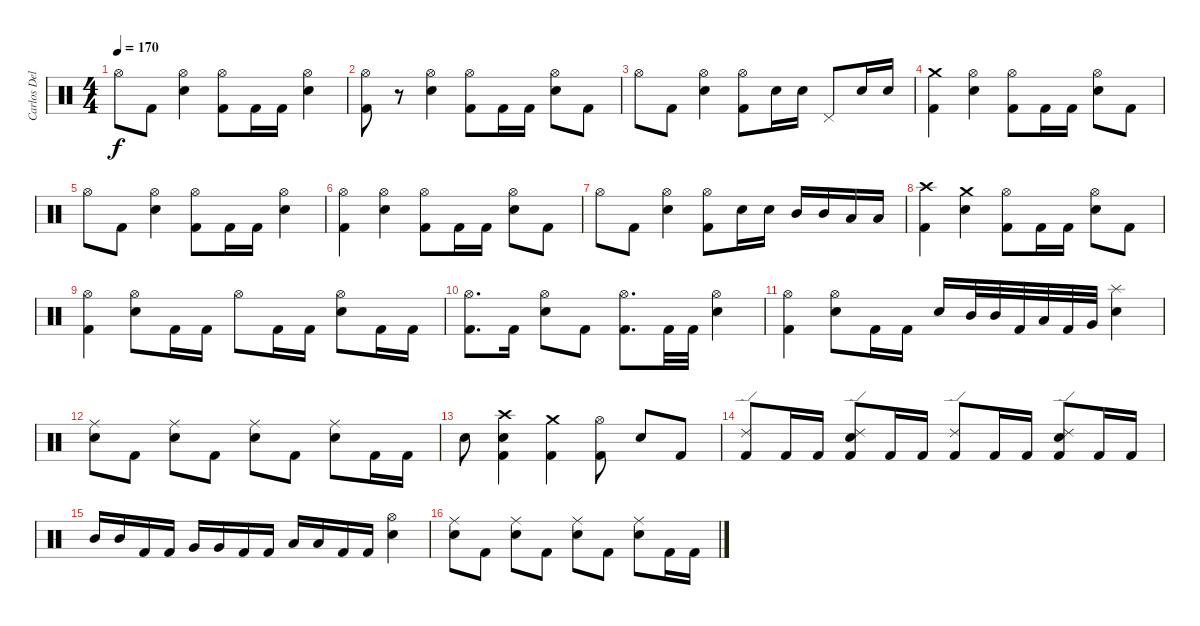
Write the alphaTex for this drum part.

\track ("Carlos Delgado" "Carlos Del") {instrument percussion}
\staff {score}
\articulation defaults
\ts (4 4)
\tempo 170
\clef neutral
\ks c "Hi-Hat (open)".8{dy f} "Kick (hit) 2".8
("Hi-Hat (open)" "Electric Snare (hit)").4 ("Hi-Hat (open)" "Kick (hit) 2").8 "Kick (hit) 2".16 "Kick (hit) 2".16 ("Hi-Hat (open)" "Electric Snare (hit)").4 |
("Hi-Hat (open)" "Kick (hit) 2").8 r.8 ("Hi-Hat (open)" "Electric Snare (hit)").4 ("Hi-Hat (open)" "Kick (hit) 2").8 "Kick (hit) 2".16 "Kick (hit) 2".16 ("Hi-Hat (open)" "Electric Snare (hit)").8 "Kick (hit) 2".8 |
"Hi-Hat (open)".8 "Kick (hit) 2".8 ("Hi-Hat (open)" "Electric Snare (hit)").4 ("Hi-Hat (open)" "Kick (hit) 2").8 "Electric Snare (hit)".16 "Electric Snare (hit)".16 "Pedal Hi-Hat (hit)".8 "Electric Snare (hit)".16 "Electric Snare (hit)".16 |
("Crash medium (hit)" "Kick (hit) 2").4 ("Hi-Hat (open)" "Electric Snare (hit)").4 ("Hi-Hat (open)" "Kick (hit) 2").8 "Kick (hit) 2".16 "Kick (hit) 2".16 ("Hi-Hat (open)" "Electric Snare (hit)").8 "Kick (hit) 2".8 |
"Hi-Hat (open)".8 "Kick (hit) 2".8 ("Hi-Hat (open)" "Electric Snare (hit)").4 ("Hi-Hat (open)" "Kick (hit) 2").8 "Kick (hit) 2".16 "Kick (hit) 2".16 ("Hi-Hat (open)" "Electric Snare (hit)").4 |
("Hi-Hat (open)" "Kick (hit) 2").4 ("Hi-Hat (open)" "Electric Snare (hit)").4 ("Hi-Hat (open)" "Kick (hit) 2").8 "Kick (hit) 2".16 "Kick (hit) 2".16 ("Hi-Hat (open)" "Electric Snare (hit)").8 "Kick (hit) 2".8 |
"Hi-Hat (open)".8 "Kick (hit) 2".8 ("Hi-Hat (open)" "Electric Snare (hit)").4 ("Hi-Hat (open)" "Kick (hit) 2").8 "Electric Snare (hit)".16 "Electric Snare (hit)".16 "Mid Tom (hit)".16 "Mid Tom (hit)".16 "Low Tom (hit)".16 "Low Tom (hit)".16 |
("Crash high (hit)" "Kick (hit) 2").4 ("Crash medium (hit)" "Electric Snare (hit)").4 ("Hi-Hat (open)" "Kick (hit) 2").8 "Kick (hit) 2".16 "Kick (hit) 2".16 ("Hi-Hat (open)" "Electric Snare (hit)").8 "Kick (hit) 2".8 |
("Hi-Hat (open)" "Kick (hit) 2").4 ("Hi-Hat (open)" "Electric Snare (hit)").8 "Kick (hit) 2".16 "Kick (hit) 2".16 "Hi-Hat (open)".8 "Kick (hit) 2".16 "Kick (hit) 2".16 ("Hi-Hat (open)" "Electric Snare (hit)").8 "Kick (hit) 2".16 "Kick (hit) 2".16 |
("Hi-Hat (open)" "Kick (hit) 2").8{d} "Kick (hit) 2".16 ("Hi-Hat (open)" "Electric Snare (hit)").8 "Kick (hit) 2".8 ("Hi-Hat (open)" "Kick (hit) 2").8{d} "Kick (hit) 2".32 "Kick (hit) 2".32 ("Hi-Hat (open)" "Electric Snare (hit)").4 |
("Hi-Hat (open)" "Kick (hit) 2").4 ("Hi-Hat (open)" "Electric Snare (hit)").8 "Kick (hit) 2".16 "Kick (hit) 2".16 "Electric Snare (hit)".16 "Mid Tom (hit)".32 "Mid Tom (hit)".32 "Kick (hit) 2".32 "Low Tom (hit)".32 "Kick (hit) 2".32 "Very Low Tom (hit)".32 ("Splash (hit)" "Electric Snare (hit)").4 |
("Ride (middle)" "Electric Snare (hit)").8 "Kick (hit) 2".8 ("Ride (middle)" "Electric Snare (hit)").8 "Kick (hit) 2".8 ("Ride (middle)" "Electric Snare (hit)").8 "Kick (hit) 2".8 ("Ride (middle)" "Electric Snare (hit)").8 "Kick (hit) 2".16 "Kick (hit) 2".16 |
"Electric Snare (hit)".8 ("Crash high (hit)" "Electric Snare (hit)" "Kick (hit) 2").4 ("Crash medium (hit)" "Kick (hit) 2").4 ("Hi-Hat (open)" "Kick (hit) 2").8 "Electric Snare (hit)".8 "Kick (hit) 2".8 |
("Ride (edge) 2" "Kick (hit) 2").8 "Kick (hit) 2".16 "Kick (hit) 2".16 ("Ride (edge) 2" "Electric Snare (hit)" "Kick (hit) 2").8 "Kick (hit) 2".16 "Kick (hit) 2".16 ("Ride (edge) 2" "Kick (hit) 2").8 "Kick (hit) 2".16 "Kick (hit) 2".16 ("Ride (edge) 2" "Electric Snare (hit)" "Kick (hit) 2").8 "Kick (hit) 2".16 "Kick (hit) 2".16 |
"Mid Tom (hit)".16 "Mid Tom (hit)".16 "Kick (hit) 2".16 "Kick (hit) 2".16 "Very Low Tom (hit)".16 "Very Low Tom (hit)".16 "Kick (hit) 2".16 "Kick (hit) 2".16 "Low Tom (hit)".16 "Low Tom (hit)".16 "Kick (hit) 2".16 "Kick (hit) 2".16 ("Hi-Hat (open)" "Electric Snare (hit)").4 |
("Ride (middle)" "Electric Snare (hit)").8 "Kick (hit) 2".8 ("Ride (middle)" "Electric Snare (hit)").8 "Kick (hit) 2".8 ("Ride (middle)" "Electric Snare (hit)").8 "Kick (hit) 2".8 ("Ride (middle)" "Electric Snare (hit)").8 "Kick (hit) 2".16 "Kick (hit) 2".16
